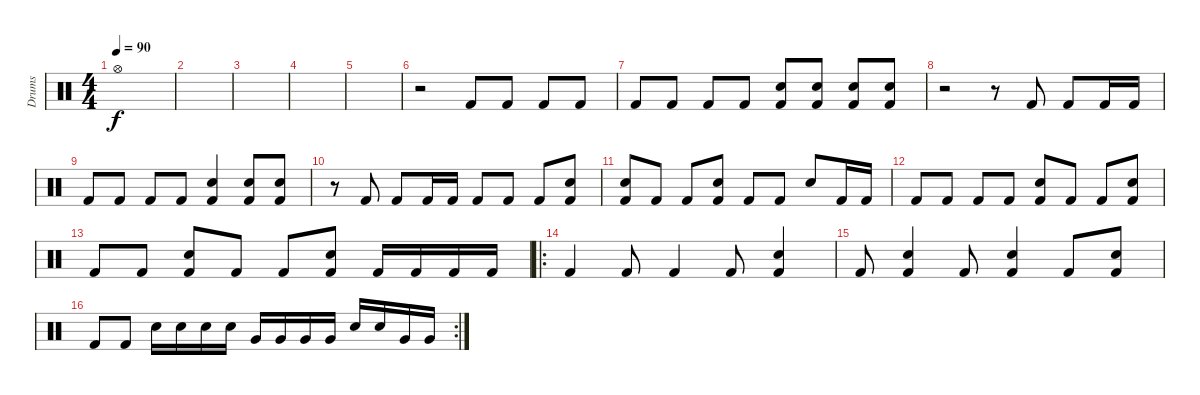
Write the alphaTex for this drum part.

\track ("Drums" "Drums") {instrument percussion}
\staff {score}
\articulation defaults
\ts (4 4)
\tempo 90
\clef neutral
\ks c "Hi-Hat (open)".1{dy f}
|
|
|
|
|
r.2 "Kick (hit) 2".8 "Kick (hit) 2".8 "Kick (hit) 2".8 "Kick (hit) 2".8 |
"Kick (hit) 2".8 "Kick (hit) 2".8 "Kick (hit) 2".8 "Kick (hit) 2".8 ("Kick (hit) 2" "Snare (hit) 2").8 ("Kick (hit) 2" "Snare (hit) 2").8 ("Kick (hit) 2" "Snare (hit) 2").8 ("Kick (hit) 2" "Snare (hit) 2").8 |
r.2 r.8 "Kick (hit) 2".8 "Kick (hit) 2".8 "Kick (hit) 2".16 "Kick (hit) 2".16 |
"Kick (hit) 2".8 "Kick (hit) 2".8 "Kick (hit) 2".8 "Kick (hit) 2".8 ("Kick (hit) 2" "Snare (hit) 2").4 ("Kick (hit) 2" "Snare (hit) 2").8 ("Kick (hit) 2" "Snare (hit) 2").8 |
r.8 "Kick (hit) 2".8 "Kick (hit) 2".8 "Kick (hit) 2".16 "Kick (hit) 2".16 "Kick (hit) 2".8 "Kick (hit) 2".8 "Kick (hit) 2".8 ("Kick (hit) 2" "Snare (hit) 2").8 |
("Kick (hit) 2" "Snare (hit) 2").8 "Kick (hit) 2".8 "Kick (hit) 2".8 ("Kick (hit) 2" "Snare (hit) 2").8 "Kick (hit) 2".8 "Kick (hit) 2".8 "Snare (hit) 2".8 "Kick (hit) 2".16 "Kick (hit) 2".16 |
"Kick (hit) 2".8 "Kick (hit) 2".8 "Kick (hit) 2".8 "Kick (hit) 2".8 ("Kick (hit) 2" "Snare (hit) 2").8 "Kick (hit) 2".8 "Kick (hit) 2".8 ("Kick (hit) 2" "Snare (hit) 2").8 |
"Kick (hit) 2".8 "Kick (hit) 2".8 ("Kick (hit) 2" "Snare (hit) 2").8 "Kick (hit) 2".8 "Kick (hit) 2".8 ("Kick (hit) 2" "Snare (hit) 2").8 "Kick (hit) 2".16 "Kick (hit) 2".16 "Kick (hit) 2".16 "Kick (hit) 2".16 |
\ro "Kick (hit) 2".4 "Kick (hit) 2".8 "Kick (hit) 2".4 "Kick (hit) 2".8
("Kick (hit) 2" "Snare (hit) 2").4 |
"Kick (hit) 2".8 ("Kick (hit) 2" "Snare (hit) 2").4 "Kick (hit) 2".8 ("Kick (hit) 2" "Snare (hit) 2").4 "Kick (hit) 2".8 ("Kick (hit) 2" "Snare (hit) 2").8 |
\rc 2 "Kick (hit) 2".8 "Kick (hit) 2".8 "Snare (hit) 2".16 "Snare (hit) 2".16 "Snare (hit) 2".16 "Snare (hit) 2".16 "Very Low Tom (hit)".16 "Very Low Tom (hit)".16 "Very Low Tom (hit)".16 "Very Low Tom (hit)".16 "Snare (hit) 2".16 "Snare (hit) 2".16 "Very Low Tom (hit)".16 "Very Low Tom (hit)".16
